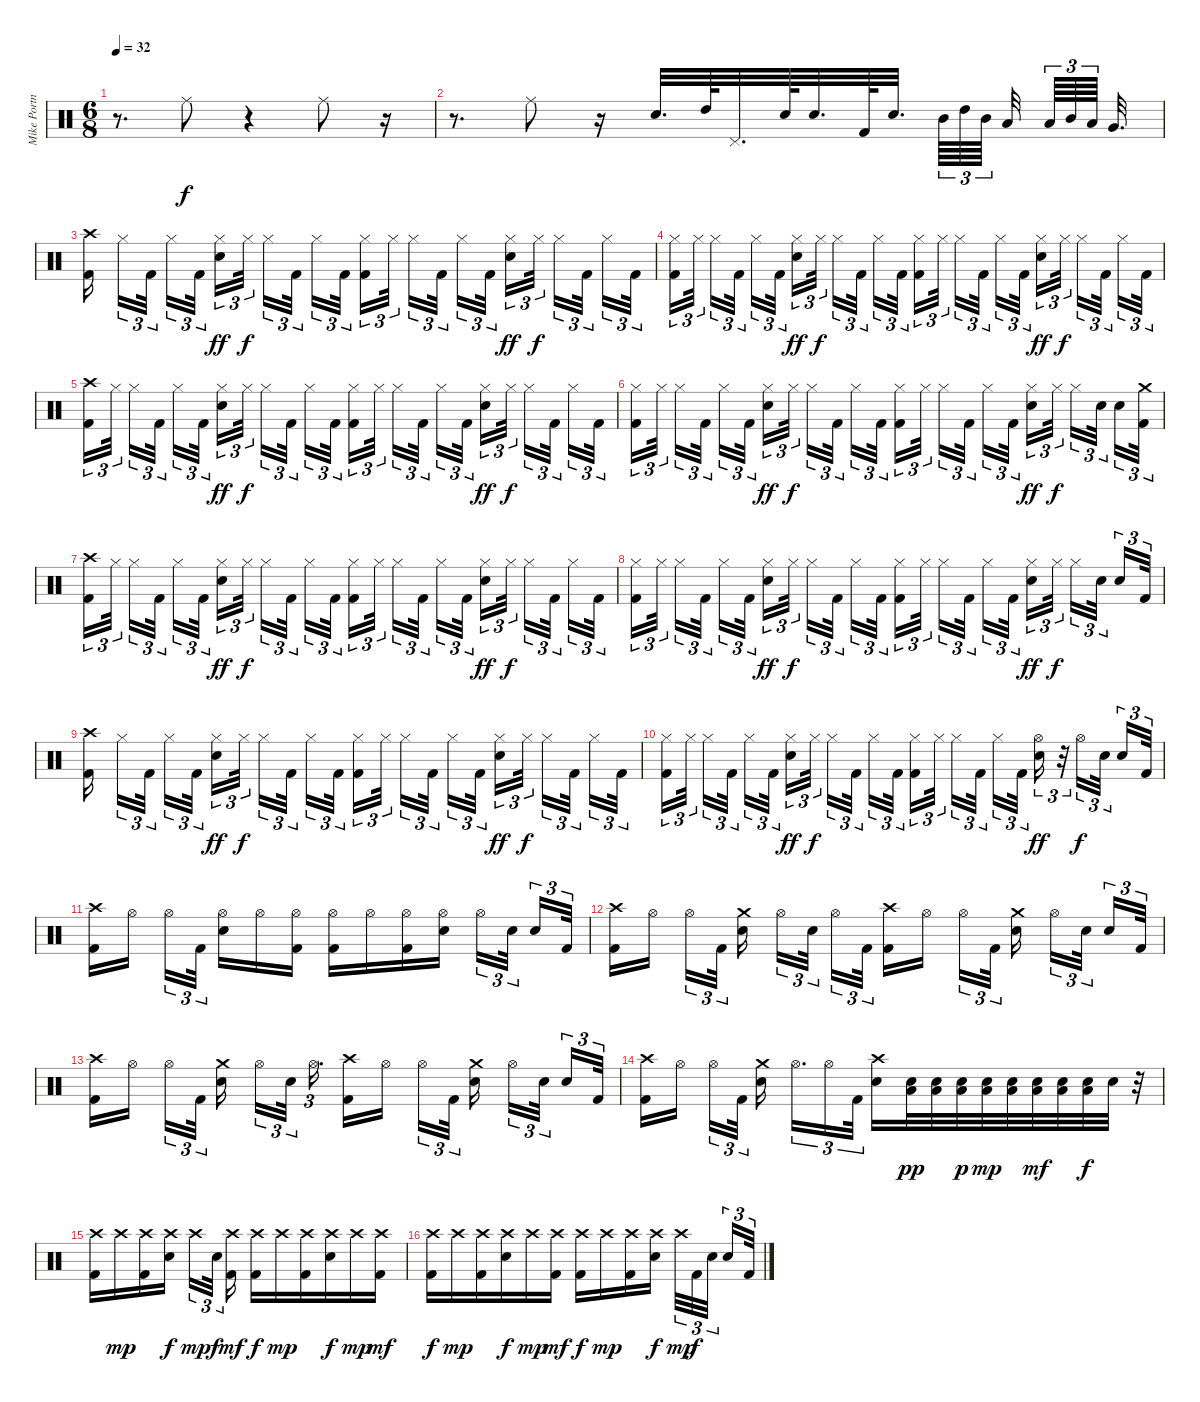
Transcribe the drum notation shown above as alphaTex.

\track ("Mike Portnoy" "Mike Portn") {instrument percussion}
\staff {score}
\articulation defaults
\ts (6 8)
\tempo 32
\clef neutral
\ks c
r.8{d dy f} "Ride (middle)".8 r.4 "Ride (middle)".8 r.16 |
r.8{d} "Ride (middle)".8 r.16 "Snare (hit) 2".32{d} "High Tom (hit)".64 "Pedal Hi-Hat (hit)".32{d} "Snare (hit) 2".64 "Snare (hit) 2".32{d} "Kick (hit) 2".64 "Snare (hit) 2".32{d beam splitsecondary} "Mid Tom (hit)".64{tu (3 2)} "High Tom (hit)".64{tu (3 2)} "Mid Tom (hit)".64{tu (3 2) beam splitsecondary} "Low Tom (hit)".32{beam splitsecondary} "Low Tom (hit)".64{tu (3 2)} "Mid Tom (hit)".64{tu (3 2)} "Low Tom (hit)".64{tu (3 2) beam splitsecondary} "Very Low Tom (hit)".32{d} |
("Crash high (hit)" "Kick (hit) 2").16{beam splitsecondary} "Hi-Hat (closed)".16{tu (3 2)} "Kick (hit) 2".32{tu (3 2) beam splitsecondary} "Hi-Hat (closed)".16{tu (3 2)} "Kick (hit) 2".32{tu (3 2) beam splitsecondary} ("Hi-Hat (closed)" "Snare (hit) 2").16{tu (3 2) dy ff} "Hi-Hat (closed)".32{tu (3 2) dy f beam splitsecondary} "Hi-Hat (closed)".16{tu (3 2)} "Kick (hit) 2".32{tu (3 2) beam splitsecondary} "Hi-Hat (closed)".16{tu (3 2)} "Kick (hit) 2".32{tu (3 2)} ("Hi-Hat (closed)" "Kick (hit) 2").16{tu (3 2)} "Hi-Hat (closed)".32{tu (3 2) beam splitsecondary} "Hi-Hat (closed)".16{tu (3 2)} "Kick (hit) 2".32{tu (3 2) beam splitsecondary} "Hi-Hat (closed)".16{tu (3 2)} "Kick (hit) 2".32{tu (3 2) beam splitsecondary} ("Hi-Hat (closed)" "Snare (hit) 2").16{tu (3 2) dy ff} "Hi-Hat (closed)".32{tu (3 2) dy f beam splitsecondary} "Hi-Hat (closed)".16{tu (3 2)} "Kick (hit) 2".32{tu (3 2) beam splitsecondary} "Hi-Hat (closed)".16{tu (3 2)} "Kick (hit) 2".32{tu (3 2)} |
("Hi-Hat (closed)" "Kick (hit) 2").16{tu (3 2)} "Hi-Hat (closed)".32{tu (3 2) beam splitsecondary} "Hi-Hat (closed)".16{tu (3 2)} "Kick (hit) 2".32{tu (3 2) beam splitsecondary} "Hi-Hat (closed)".16{tu (3 2)} "Kick (hit) 2".32{tu (3 2) beam splitsecondary} ("Hi-Hat (closed)" "Snare (hit) 2").16{tu (3 2) dy ff} "Hi-Hat (closed)".32{tu (3 2) dy f beam splitsecondary} "Hi-Hat (closed)".16{tu (3 2)} "Kick (hit) 2".32{tu (3 2) beam splitsecondary} "Hi-Hat (closed)".16{tu (3 2)} "Kick (hit) 2".32{tu (3 2)} ("Hi-Hat (closed)" "Kick (hit) 2").16{tu (3 2)} "Hi-Hat (closed)".32{tu (3 2) beam splitsecondary} "Hi-Hat (closed)".16{tu (3 2)} "Kick (hit) 2".32{tu (3 2) beam splitsecondary} "Hi-Hat (closed)".16{tu (3 2)} "Kick (hit) 2".32{tu (3 2) beam splitsecondary} ("Hi-Hat (closed)" "Snare (hit) 2").16{tu (3 2) dy ff} "Hi-Hat (closed)".32{tu (3 2) dy f beam splitsecondary} "Hi-Hat (closed)".16{tu (3 2)} "Kick (hit) 2".32{tu (3 2) beam splitsecondary} "Hi-Hat (closed)".16{tu (3 2)} "Kick (hit) 2".32{tu (3 2)} |
("Crash high (hit)" "Kick (hit) 2").16{tu (3 2)} "Hi-Hat (closed)".32{tu (3 2) beam splitsecondary} "Hi-Hat (closed)".16{tu (3 2)} "Kick (hit) 2".32{tu (3 2) beam splitsecondary} "Hi-Hat (closed)".16{tu (3 2)} "Kick (hit) 2".32{tu (3 2) beam splitsecondary} ("Hi-Hat (closed)" "Snare (hit) 2").16{tu (3 2) dy ff} "Hi-Hat (closed)".32{tu (3 2) dy f beam splitsecondary} "Hi-Hat (closed)".16{tu (3 2)} "Kick (hit) 2".32{tu (3 2) beam splitsecondary} "Hi-Hat (closed)".16{tu (3 2)} "Kick (hit) 2".32{tu (3 2)} ("Hi-Hat (closed)" "Kick (hit) 2").16{tu (3 2)} "Hi-Hat (closed)".32{tu (3 2) beam splitsecondary} "Hi-Hat (closed)".16{tu (3 2)} "Kick (hit) 2".32{tu (3 2) beam splitsecondary} "Hi-Hat (closed)".16{tu (3 2)} "Kick (hit) 2".32{tu (3 2) beam splitsecondary} ("Hi-Hat (closed)" "Snare (hit) 2").16{tu (3 2) dy ff} "Hi-Hat (closed)".32{tu (3 2) dy f beam splitsecondary} "Hi-Hat (closed)".16{tu (3 2)} "Kick (hit) 2".32{tu (3 2) beam splitsecondary} "Hi-Hat (closed)".16{tu (3 2)} "Kick (hit) 2".32{tu (3 2)} |
("Hi-Hat (closed)" "Kick (hit) 2").16{tu (3 2)} "Hi-Hat (closed)".32{tu (3 2) beam splitsecondary} "Hi-Hat (closed)".16{tu (3 2)} "Kick (hit) 2".32{tu (3 2) beam splitsecondary} "Hi-Hat (closed)".16{tu (3 2)} "Kick (hit) 2".32{tu (3 2) beam splitsecondary} ("Hi-Hat (closed)" "Snare (hit) 2").16{tu (3 2) dy ff} "Hi-Hat (closed)".32{tu (3 2) dy f beam splitsecondary} "Hi-Hat (closed)".16{tu (3 2)} "Kick (hit) 2".32{tu (3 2) beam splitsecondary} "Hi-Hat (closed)".16{tu (3 2)} "Kick (hit) 2".32{tu (3 2)} ("Hi-Hat (closed)" "Kick (hit) 2").16{tu (3 2)} "Hi-Hat (closed)".32{tu (3 2) beam splitsecondary} "Hi-Hat (closed)".16{tu (3 2)} "Kick (hit) 2".32{tu (3 2) beam splitsecondary} "Hi-Hat (closed)".16{tu (3 2)} "Kick (hit) 2".32{tu (3 2) beam splitsecondary} ("Hi-Hat (closed)" "Snare (hit) 2").16{tu (3 2) dy ff} "Hi-Hat (closed)".32{tu (3 2) dy f beam splitsecondary} "Hi-Hat (closed)".16{tu (3 2)} "Snare (hit) 2".32{tu (3 2) beam splitsecondary} "Snare (hit) 2".16{tu (3 2)} ("Crash medium (hit)" "Kick (hit) 2").32{tu (3 2)} |
("Crash high (hit)" "Kick (hit) 2").16{tu (3 2)} "Hi-Hat (closed)".32{tu (3 2) beam splitsecondary} "Hi-Hat (closed)".16{tu (3 2)} "Kick (hit) 2".32{tu (3 2) beam splitsecondary} "Hi-Hat (closed)".16{tu (3 2)} "Kick (hit) 2".32{tu (3 2) beam splitsecondary} ("Hi-Hat (closed)" "Snare (hit) 2").16{tu (3 2) dy ff} "Hi-Hat (closed)".32{tu (3 2) dy f beam splitsecondary} "Hi-Hat (closed)".16{tu (3 2)} "Kick (hit) 2".32{tu (3 2) beam splitsecondary} "Hi-Hat (closed)".16{tu (3 2)} "Kick (hit) 2".32{tu (3 2)} ("Hi-Hat (closed)" "Kick (hit) 2").16{tu (3 2)} "Hi-Hat (closed)".32{tu (3 2) beam splitsecondary} "Hi-Hat (closed)".16{tu (3 2)} "Kick (hit) 2".32{tu (3 2) beam splitsecondary} "Hi-Hat (closed)".16{tu (3 2)} "Kick (hit) 2".32{tu (3 2) beam splitsecondary} ("Hi-Hat (closed)" "Snare (hit) 2").16{tu (3 2) dy ff} "Hi-Hat (closed)".32{tu (3 2) dy f beam splitsecondary} "Hi-Hat (closed)".16{tu (3 2)} "Kick (hit) 2".32{tu (3 2) beam splitsecondary} "Hi-Hat (closed)".16{tu (3 2)} "Kick (hit) 2".32{tu (3 2)} |
("Hi-Hat (closed)" "Kick (hit) 2").16{tu (3 2)} "Hi-Hat (closed)".32{tu (3 2) beam splitsecondary} "Hi-Hat (closed)".16{tu (3 2)} "Kick (hit) 2".32{tu (3 2) beam splitsecondary} "Hi-Hat (closed)".16{tu (3 2)} "Kick (hit) 2".32{tu (3 2) beam splitsecondary} ("Hi-Hat (closed)" "Snare (hit) 2").16{tu (3 2) dy ff} "Hi-Hat (closed)".32{tu (3 2) dy f beam splitsecondary} "Hi-Hat (closed)".16{tu (3 2)} "Kick (hit) 2".32{tu (3 2) beam splitsecondary} "Hi-Hat (closed)".16{tu (3 2)} "Kick (hit) 2".32{tu (3 2)} ("Hi-Hat (closed)" "Kick (hit) 2").16{tu (3 2)} "Hi-Hat (closed)".32{tu (3 2) beam splitsecondary} "Hi-Hat (closed)".16{tu (3 2)} "Kick (hit) 2".32{tu (3 2) beam splitsecondary} "Hi-Hat (closed)".16{tu (3 2)} "Kick (hit) 2".32{tu (3 2) beam splitsecondary} ("Hi-Hat (closed)" "Snare (hit) 2").16{tu (3 2) dy ff} "Hi-Hat (closed)".32{tu (3 2) dy f beam splitsecondary} "Hi-Hat (closed)".16{tu (3 2)} "Snare (hit) 2".32{tu (3 2) beam splitsecondary} "Snare (hit) 2".16{tu (3 2)} "Kick (hit) 2".32{tu (3 2)} |
("Crash high (hit)" "Kick (hit) 2").16{beam splitsecondary} "Hi-Hat (closed)".16{tu (3 2)} "Kick (hit) 2".32{tu (3 2) beam splitsecondary} "Hi-Hat (closed)".16{tu (3 2)} "Kick (hit) 2".32{tu (3 2) beam splitsecondary} ("Hi-Hat (closed)" "Snare (hit) 2").16{tu (3 2) dy ff} "Hi-Hat (closed)".32{tu (3 2) dy f beam splitsecondary} "Hi-Hat (closed)".16{tu (3 2)} "Kick (hit) 2".32{tu (3 2) beam splitsecondary} "Hi-Hat (closed)".16{tu (3 2)} "Kick (hit) 2".32{tu (3 2)} ("Hi-Hat (closed)" "Kick (hit) 2").16{tu (3 2)} "Hi-Hat (closed)".32{tu (3 2) beam splitsecondary} "Hi-Hat (closed)".16{tu (3 2)} "Kick (hit) 2".32{tu (3 2) beam splitsecondary} "Hi-Hat (closed)".16{tu (3 2)} "Kick (hit) 2".32{tu (3 2) beam splitsecondary} ("Hi-Hat (closed)" "Snare (hit) 2").16{tu (3 2) dy ff} "Hi-Hat (closed)".32{tu (3 2) dy f beam splitsecondary} "Hi-Hat (closed)".16{tu (3 2)} "Kick (hit) 2".32{tu (3 2) beam splitsecondary} "Hi-Hat (closed)".16{tu (3 2)} "Kick (hit) 2".32{tu (3 2)} |
("Hi-Hat (closed)" "Kick (hit) 2").16{tu (3 2)} "Hi-Hat (closed)".32{tu (3 2) beam splitsecondary} "Hi-Hat (closed)".16{tu (3 2)} "Kick (hit) 2".32{tu (3 2) beam splitsecondary} "Hi-Hat (closed)".16{tu (3 2)} "Kick (hit) 2".32{tu (3 2) beam splitsecondary} ("Hi-Hat (closed)" "Snare (hit) 2").16{tu (3 2) dy ff} "Hi-Hat (closed)".32{tu (3 2) dy f beam splitsecondary} "Hi-Hat (closed)".16{tu (3 2)} "Kick (hit) 2".32{tu (3 2) beam splitsecondary} "Hi-Hat (closed)".16{tu (3 2)} "Kick (hit) 2".32{tu (3 2)} ("Hi-Hat (closed)" "Kick (hit) 2").16{tu (3 2)} "Hi-Hat (closed)".32{tu (3 2) beam splitsecondary} "Hi-Hat (closed)".16{tu (3 2)} "Kick (hit) 2".32{tu (3 2) beam splitsecondary} "Hi-Hat (closed)".16{tu (3 2)} "Kick (hit) 2".32{tu (3 2) beam splitsecondary} ("Hi-Hat (open)" "Snare (hit) 2").16{tu (3 2) dy ff} r.32{tu (3 2)} "Hi-Hat (open)".16{tu (3 2) dy f} "Snare (hit) 2".32{tu (3 2) beam splitsecondary} "Snare (hit) 2".16{tu (3 2)} "Kick (hit) 2".32{tu (3 2)} |
("Crash high (hit)" "Kick (hit) 2").16 "Hi-Hat (open)".16{beam splitsecondary} "Hi-Hat (open)".16{tu (3 2)} "Kick (hit) 2".32{tu (3 2) beam splitsecondary} ("Hi-Hat (open)" "Snare (hit) 2").16 "Hi-Hat (open)".16 ("Hi-Hat (open)" "Kick (hit) 2").16 ("Hi-Hat (open)" "Kick (hit) 2").16 "Hi-Hat (open)".16 ("Hi-Hat (open)" "Kick (hit) 2").16 ("Hi-Hat (open)" "Snare (hit) 2").16{beam splitsecondary} "Hi-Hat (open)".16{tu (3 2)} "Snare (hit) 2".32{tu (3 2) beam splitsecondary} "Snare (hit) 2".16{tu (3 2)} "Kick (hit) 2".32{tu (3 2)} |
("Crash high (hit)" "Kick (hit) 2").16 "Hi-Hat (open)".16{beam splitsecondary} "Hi-Hat (open)".16{tu (3 2)} "Kick (hit) 2".32{tu (3 2) beam splitsecondary} ("Crash medium (hit)" "Snare (hit) 2").16{beam splitsecondary} "Hi-Hat (open)".16{tu (3 2)} "Snare (hit) 2".32{tu (3 2) beam splitsecondary} "Hi-Hat (open)".16{tu (3 2)} "Kick (hit) 2".32{tu (3 2)} ("Crash high (hit)" "Kick (hit) 2").16 "Hi-Hat (open)".16{beam splitsecondary} "Hi-Hat (open)".16{tu (3 2)} "Kick (hit) 2".32{tu (3 2) beam splitsecondary} ("Crash medium (hit)" "Snare (hit) 2").16{beam splitsecondary} "Hi-Hat (open)".16{tu (3 2)} "Snare (hit) 2".32{tu (3 2) beam splitsecondary} "Snare (hit) 2".16{tu (3 2)} "Kick (hit) 2".32{tu (3 2)} |
("Crash high (hit)" "Kick (hit) 2").16 "Hi-Hat (open)".16{beam splitsecondary} "Hi-Hat (open)".16{tu (3 2)} "Kick (hit) 2".32{tu (3 2) beam splitsecondary} ("Crash medium (hit)" "Snare (hit) 2").16{beam splitsecondary} "Hi-Hat (open)".16{tu (3 2)} "Snare (hit) 2".32{tu (3 2) beam splitsecondary} "Hi-Hat (open)".16{d tu (3 2)} ("Crash high (hit)" "Kick (hit) 2").16 "Hi-Hat (open)".16{beam splitsecondary} "Hi-Hat (open)".16{tu (3 2)} "Kick (hit) 2".32{tu (3 2) beam splitsecondary} ("Crash medium (hit)" "Snare (hit) 2").16{beam splitsecondary} "Hi-Hat (open)".16{tu (3 2)} "Snare (hit) 2".32{tu (3 2) beam splitsecondary} "Snare (hit) 2".16{tu (3 2)} "Kick (hit) 2".32{tu (3 2)} |
("Crash high (hit)" "Kick (hit) 2").16 "Hi-Hat (open)".16{beam splitsecondary} "Hi-Hat (open)".16{tu (3 2)} "Kick (hit) 2".32{tu (3 2) beam splitsecondary} ("Crash medium (hit)" "Snare (hit) 2").16{beam splitsecondary} "Hi-Hat (open)".16{d tu (3 2)} "Hi-Hat (open)".16{tu (3 2)} "Kick (hit) 2".32{tu (3 2)} ("Crash high (hit)" "Snare (hit) 2").16 ("Snare (hit) 2" "Low Tom (hit)").32{dy pp} ("Snare (hit) 2" "Low Tom (hit)").32 ("Snare (hit) 2" "Low Tom (hit)").32{dy p} ("Snare (hit) 2" "Low Tom (hit)").32{dy mp} ("Snare (hit) 2" "Low Tom (hit)").32 ("Snare (hit) 2" "Low Tom (hit)").32{dy mf} ("Snare (hit) 2" "Low Tom (hit)").32 ("Snare (hit) 2" "Low Tom (hit)").32{dy f} "Snare (hit) 2".32 r.32 |
("Crash high (hit)" "Kick (hit) 2").16 "Crash high (hit)".16{dy mp} ("Crash high (hit)" "Kick (hit) 2").16 ("Crash high (hit)" "Snare (hit) 2").16{dy f beam splitsecondary} "Crash high (hit)".16{tu (3 2) dy mp} "Snare (hit) 2".32{tu (3 2) dy f beam splitsecondary} ("Crash high (hit)" "Kick (hit) 2").16{dy mf} ("Crash high (hit)" "Kick (hit) 2").16{dy f} "Crash high (hit)".16{dy mp} ("Crash high (hit)" "Kick (hit) 2").16 ("Crash high (hit)" "Snare (hit) 2").16{dy f} "Crash high (hit)".16{dy mp} ("Crash high (hit)" "Kick (hit) 2").16{dy mf} |
("Crash high (hit)" "Kick (hit) 2").16{dy f} "Crash high (hit)".16{dy mp} ("Crash high (hit)" "Kick (hit) 2").16 ("Crash high (hit)" "Snare (hit) 2").16{dy f} "Crash high (hit)".16{dy mp} ("Crash high (hit)" "Kick (hit) 2").16{dy mf} ("Crash high (hit)" "Kick (hit) 2").16{dy f} "Crash high (hit)".16{dy mp} ("Crash high (hit)" "Kick (hit) 2").16 ("Crash high (hit)" "Snare (hit) 2").16{dy f beam splitsecondary} "Crash high (hit)".32{tu (3 2) dy mp} "Kick (hit) 2".32{tu (3 2) dy f} "Snare (hit) 2".32{tu (3 2) beam splitsecondary} "Snare (hit) 2".16{tu (3 2)} "Kick (hit) 2".32{tu (3 2)}
